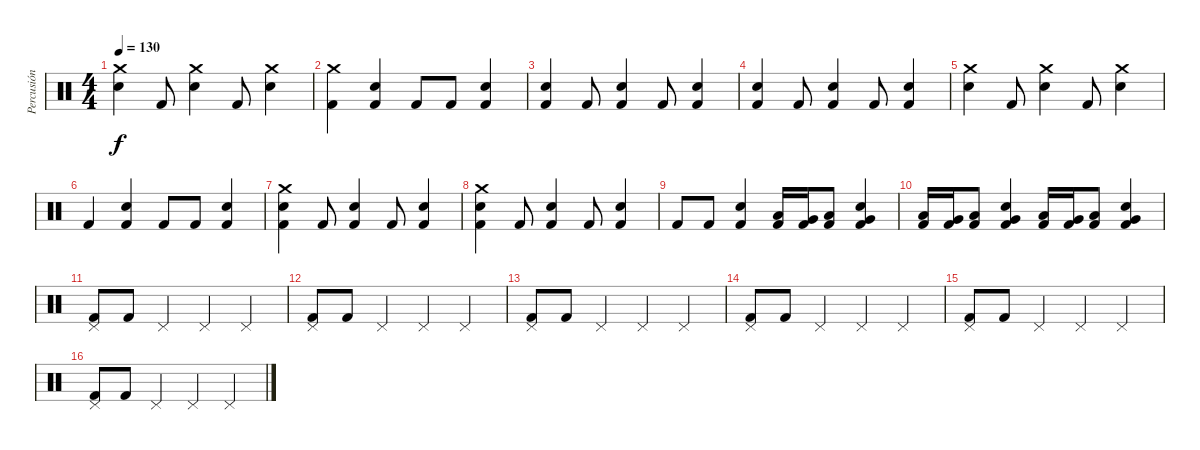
\track ("Percusión" "Percusión") {instrument percussion}
\staff {score}
\articulation defaults
\ts (4 4)
\tempo 130
\clef neutral
\ks c
("Crash medium (hit)" "Electric Snare (hit)").4{dy f} "Kick (hit) 2".8 ("Crash medium (hit)" "Electric Snare (hit)").4 "Kick (hit) 2".8 ("Crash medium (hit)" "Electric Snare (hit)").4 |
("Crash medium (hit)" "Kick (hit) 2").4 ("Kick (hit) 2" "Electric Snare (hit)").4 "Kick (hit) 2".8 "Kick (hit) 2".8 ("Kick (hit) 2" "Electric Snare (hit)").4 |
("Kick (hit) 2" "Electric Snare (hit)").4 "Kick (hit) 2".8 ("Kick (hit) 2" "Electric Snare (hit)").4 "Kick (hit) 2".8 ("Kick (hit) 2" "Electric Snare (hit)").4 |
("Kick (hit) 2" "Electric Snare (hit)").4 "Kick (hit) 2".8 ("Kick (hit) 2" "Electric Snare (hit)").4 "Kick (hit) 2".8 ("Kick (hit) 2" "Electric Snare (hit)").4 |
("Crash medium (hit)" "Electric Snare (hit)").4 "Kick (hit) 2".8 ("Crash medium (hit)" "Electric Snare (hit)").4 "Kick (hit) 2".8 ("Crash medium (hit)" "Electric Snare (hit)").4 |
"Kick (hit) 2".4 ("Kick (hit) 2" "Electric Snare (hit)").4 "Kick (hit) 2".8 "Kick (hit) 2".8 ("Kick (hit) 2" "Electric Snare (hit)").4 |
("Kick (hit) 2" "Electric Snare (hit)" "Crash medium (hit)").4 "Kick (hit) 2".8 ("Kick (hit) 2" "Electric Snare (hit)").4 "Kick (hit) 2".8 ("Kick (hit) 2" "Electric Snare (hit)").4 |
("Crash medium (hit)" "Kick (hit) 2" "Electric Snare (hit)").4 "Kick (hit) 2".8 ("Kick (hit) 2" "Electric Snare (hit)").4 "Kick (hit) 2".8 ("Kick (hit) 2" "Electric Snare (hit)").4 |
"Kick (hit) 2".8 "Kick (hit) 2".8 ("Electric Snare (hit)" "Kick (hit) 2").4 ("Low Floor Tom (hit)" "Kick (hit) 2").16 ("Very Low Tom (hit)" "Kick (hit) 2").16 ("Low Floor Tom (hit)" "Kick (hit) 2").8 ("Electric Snare (hit)" "Very Low Tom (hit)" "Kick (hit) 2").4 |
("Low Floor Tom (hit)" "Kick (hit) 2").16 ("Very Low Tom (hit)" "Kick (hit) 2").16 ("Low Floor Tom (hit)" "Kick (hit) 2").8 ("Electric Snare (hit)" "Very Low Tom (hit)" "Kick (hit) 2").4 ("Low Floor Tom (hit)" "Kick (hit) 2").16 ("Very Low Tom (hit)" "Kick (hit) 2").16 ("Low Floor Tom (hit)" "Kick (hit) 2").8 ("Electric Snare (hit)" "Very Low Tom (hit)" "Kick (hit) 2").4 |
("Pedal Hi-Hat (hit)" "Kick (hit) 2").8 "Kick (hit) 2".8 "Pedal Hi-Hat (hit)".4 "Pedal Hi-Hat (hit)".4 "Pedal Hi-Hat (hit)".4 |
("Pedal Hi-Hat (hit)" "Kick (hit) 2").8 "Kick (hit) 2".8 "Pedal Hi-Hat (hit)".4 "Pedal Hi-Hat (hit)".4 "Pedal Hi-Hat (hit)".4 |
("Pedal Hi-Hat (hit)" "Kick (hit) 2").8 "Kick (hit) 2".8 "Pedal Hi-Hat (hit)".4 "Pedal Hi-Hat (hit)".4 "Pedal Hi-Hat (hit)".4 |
("Pedal Hi-Hat (hit)" "Kick (hit) 2").8 "Kick (hit) 2".8 "Pedal Hi-Hat (hit)".4 "Pedal Hi-Hat (hit)".4 "Pedal Hi-Hat (hit)".4 |
("Pedal Hi-Hat (hit)" "Kick (hit) 2").8 "Kick (hit) 2".8 "Pedal Hi-Hat (hit)".4 "Pedal Hi-Hat (hit)".4 "Pedal Hi-Hat (hit)".4 |
("Pedal Hi-Hat (hit)" "Kick (hit) 2").8 "Kick (hit) 2".8 "Pedal Hi-Hat (hit)".4 "Pedal Hi-Hat (hit)".4 "Pedal Hi-Hat (hit)".4
